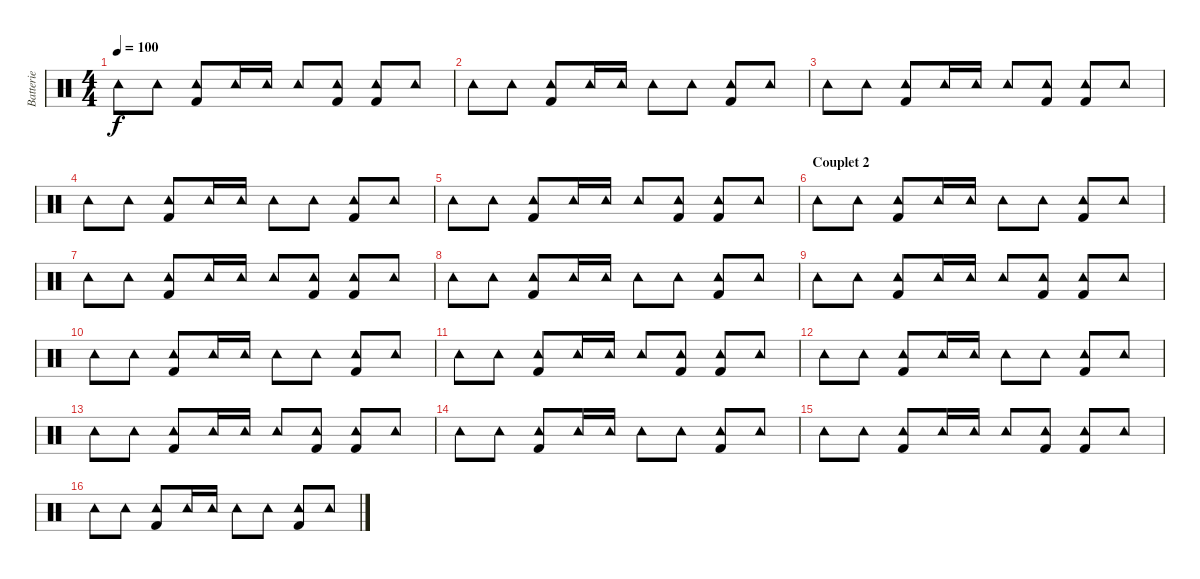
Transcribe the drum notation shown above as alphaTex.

\track ("Batterie" "Batterie") {instrument percussion}
\staff {score}
\articulation defaults
\ts (4 4)
\tempo 100
\clef neutral
\ks c "Tambourine (hit)".8{dy f} "Tambourine (hit)".8
("Tambourine (hit)" "Kick (hit) 2").8 "Tambourine (hit)".16 "Tambourine (hit)".16 "Tambourine (hit)".8 ("Tambourine (hit)" "Kick (hit) 2").8 ("Tambourine (hit)" "Kick (hit) 2").8 "Tambourine (hit)".8 |
"Tambourine (hit)".8 "Tambourine (hit)".8 ("Tambourine (hit)" "Kick (hit) 2").8 "Tambourine (hit)".16 "Tambourine (hit)".16 "Tambourine (hit)".8 "Tambourine (hit)".8 ("Tambourine (hit)" "Kick (hit) 2").8 "Tambourine (hit)".8 |
"Tambourine (hit)".8 "Tambourine (hit)".8 ("Tambourine (hit)" "Kick (hit) 2").8 "Tambourine (hit)".16 "Tambourine (hit)".16 "Tambourine (hit)".8 ("Tambourine (hit)" "Kick (hit) 2").8 ("Tambourine (hit)" "Kick (hit) 2").8 "Tambourine (hit)".8 |
"Tambourine (hit)".8 "Tambourine (hit)".8 ("Tambourine (hit)" "Kick (hit) 2").8 "Tambourine (hit)".16 "Tambourine (hit)".16 "Tambourine (hit)".8 "Tambourine (hit)".8 ("Tambourine (hit)" "Kick (hit) 2").8 "Tambourine (hit)".8 |
"Tambourine (hit)".8 "Tambourine (hit)".8 ("Tambourine (hit)" "Kick (hit) 2").8 "Tambourine (hit)".16 "Tambourine (hit)".16 "Tambourine (hit)".8 ("Tambourine (hit)" "Kick (hit) 2").8 ("Tambourine (hit)" "Kick (hit) 2").8 "Tambourine (hit)".8 |
\section ("" "Couplet 2")
"Tambourine (hit)".8 "Tambourine (hit)".8 ("Tambourine (hit)" "Kick (hit) 2").8 "Tambourine (hit)".16 "Tambourine (hit)".16 "Tambourine (hit)".8 "Tambourine (hit)".8 ("Tambourine (hit)" "Kick (hit) 2").8 "Tambourine (hit)".8 |
"Tambourine (hit)".8 "Tambourine (hit)".8 ("Tambourine (hit)" "Kick (hit) 2").8 "Tambourine (hit)".16 "Tambourine (hit)".16 "Tambourine (hit)".8 ("Tambourine (hit)" "Kick (hit) 2").8 ("Tambourine (hit)" "Kick (hit) 2").8 "Tambourine (hit)".8 |
"Tambourine (hit)".8 "Tambourine (hit)".8 ("Tambourine (hit)" "Kick (hit) 2").8 "Tambourine (hit)".16 "Tambourine (hit)".16 "Tambourine (hit)".8 "Tambourine (hit)".8 ("Tambourine (hit)" "Kick (hit) 2").8 "Tambourine (hit)".8 |
"Tambourine (hit)".8 "Tambourine (hit)".8 ("Tambourine (hit)" "Kick (hit) 2").8 "Tambourine (hit)".16 "Tambourine (hit)".16 "Tambourine (hit)".8 ("Tambourine (hit)" "Kick (hit) 2").8 ("Tambourine (hit)" "Kick (hit) 2").8 "Tambourine (hit)".8 |
"Tambourine (hit)".8 "Tambourine (hit)".8 ("Tambourine (hit)" "Kick (hit) 2").8 "Tambourine (hit)".16 "Tambourine (hit)".16 "Tambourine (hit)".8 "Tambourine (hit)".8 ("Tambourine (hit)" "Kick (hit) 2").8 "Tambourine (hit)".8 |
"Tambourine (hit)".8 "Tambourine (hit)".8 ("Tambourine (hit)" "Kick (hit) 2").8 "Tambourine (hit)".16 "Tambourine (hit)".16 "Tambourine (hit)".8 ("Tambourine (hit)" "Kick (hit) 2").8 ("Tambourine (hit)" "Kick (hit) 2").8 "Tambourine (hit)".8 |
"Tambourine (hit)".8 "Tambourine (hit)".8 ("Tambourine (hit)" "Kick (hit) 2").8 "Tambourine (hit)".16 "Tambourine (hit)".16 "Tambourine (hit)".8 "Tambourine (hit)".8 ("Tambourine (hit)" "Kick (hit) 2").8 "Tambourine (hit)".8 |
"Tambourine (hit)".8 "Tambourine (hit)".8 ("Tambourine (hit)" "Kick (hit) 2").8 "Tambourine (hit)".16 "Tambourine (hit)".16 "Tambourine (hit)".8 ("Tambourine (hit)" "Kick (hit) 2").8 ("Tambourine (hit)" "Kick (hit) 2").8 "Tambourine (hit)".8 |
"Tambourine (hit)".8 "Tambourine (hit)".8 ("Tambourine (hit)" "Kick (hit) 2").8 "Tambourine (hit)".16 "Tambourine (hit)".16 "Tambourine (hit)".8 "Tambourine (hit)".8 ("Tambourine (hit)" "Kick (hit) 2").8 "Tambourine (hit)".8 |
"Tambourine (hit)".8 "Tambourine (hit)".8 ("Tambourine (hit)" "Kick (hit) 2").8 "Tambourine (hit)".16 "Tambourine (hit)".16 "Tambourine (hit)".8 ("Tambourine (hit)" "Kick (hit) 2").8 ("Tambourine (hit)" "Kick (hit) 2").8 "Tambourine (hit)".8 |
"Tambourine (hit)".8 "Tambourine (hit)".8 ("Tambourine (hit)" "Kick (hit) 2").8 "Tambourine (hit)".16 "Tambourine (hit)".16 "Tambourine (hit)".8 "Tambourine (hit)".8 ("Tambourine (hit)" "Kick (hit) 2").8 "Tambourine (hit)".8
